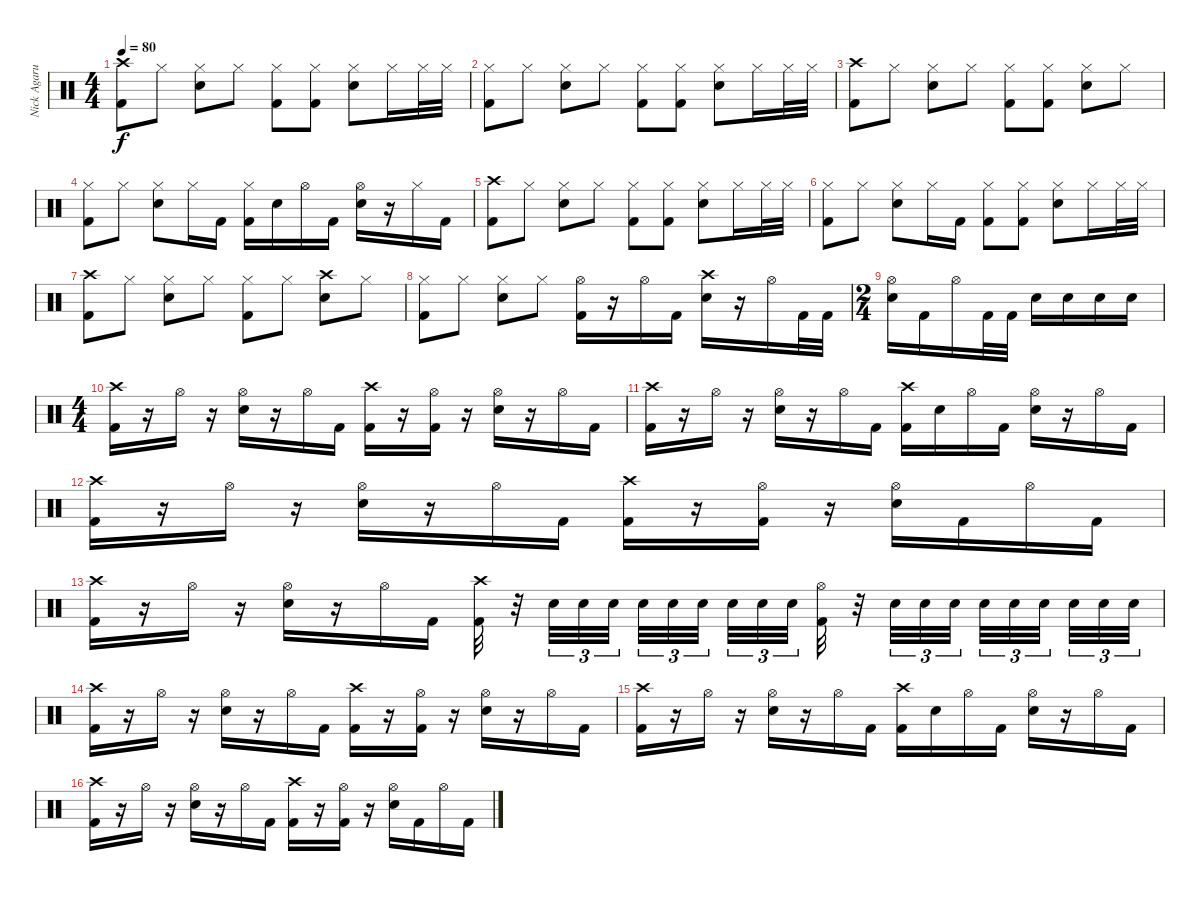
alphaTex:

\track ("Nick Agarua" "Nick Agaru") {instrument percussion}
\staff {score}
\articulation defaults
\ts (4 4)
\tempo 80
\clef neutral
\ks c
("Crash high (hit)" "Kick (hit) 2").8{dy f} "Hi-Hat (closed)".8 ("Hi-Hat (closed)" "Electric Snare (hit)").8 "Hi-Hat (closed)".8 ("Hi-Hat (closed)" "Kick (hit) 2").8 ("Hi-Hat (closed)" "Kick (hit) 2").8 ("Hi-Hat (closed)" "Electric Snare (hit)").8 "Hi-Hat (closed)".16 "Hi-Hat (closed)".32 "Hi-Hat (closed)".32 |
("Hi-Hat (closed)" "Kick (hit) 2").8 "Hi-Hat (closed)".8 ("Hi-Hat (closed)" "Electric Snare (hit)").8 "Hi-Hat (closed)".8 ("Hi-Hat (closed)" "Kick (hit) 2").8 ("Hi-Hat (closed)" "Kick (hit) 2").8 ("Hi-Hat (closed)" "Electric Snare (hit)").8 "Hi-Hat (closed)".16 "Hi-Hat (closed)".32 "Hi-Hat (closed)".32 |
("Crash high (hit)" "Kick (hit) 2").8 "Hi-Hat (closed)".8 ("Hi-Hat (closed)" "Electric Snare (hit)").8 "Hi-Hat (closed)".8 ("Hi-Hat (closed)" "Kick (hit) 2").8 ("Hi-Hat (closed)" "Kick (hit) 2").8 ("Hi-Hat (closed)" "Electric Snare (hit)").8 "Hi-Hat (closed)".8 |
("Hi-Hat (closed)" "Kick (hit) 2").8 "Hi-Hat (closed)".8 ("Hi-Hat (closed)" "Electric Snare (hit)").8 "Hi-Hat (closed)".16 "Kick (hit) 2".16 ("Hi-Hat (closed)" "Kick (hit) 2").16 "Electric Snare (hit)".16 "Hi-Hat (open)".16 "Kick (hit) 2".16 ("Hi-Hat (open)" "Electric Snare (hit)").16 r.16 "Hi-Hat (closed)".16 "Kick (hit) 2".16 |
("Crash high (hit)" "Kick (hit) 2").8 "Hi-Hat (closed)".8 ("Hi-Hat (closed)" "Electric Snare (hit)").8 "Hi-Hat (closed)".8 ("Hi-Hat (closed)" "Kick (hit) 2").8 ("Hi-Hat (closed)" "Kick (hit) 2").8 ("Hi-Hat (closed)" "Electric Snare (hit)").8 "Hi-Hat (closed)".16 "Hi-Hat (closed)".32 "Hi-Hat (closed)".32 |
("Hi-Hat (closed)" "Kick (hit) 2").8 "Hi-Hat (closed)".8 ("Hi-Hat (closed)" "Electric Snare (hit)").8 "Hi-Hat (closed)".16 "Kick (hit) 2".16 ("Hi-Hat (closed)" "Kick (hit) 2").8 ("Hi-Hat (closed)" "Kick (hit) 2").8 ("Hi-Hat (closed)" "Electric Snare (hit)").8 "Hi-Hat (closed)".16 "Hi-Hat (closed)".32 "Hi-Hat (closed)".32 |
("Crash high (hit)" "Kick (hit) 2").8 "Hi-Hat (closed)".8 ("Hi-Hat (closed)" "Electric Snare (hit)").8 "Hi-Hat (closed)".8 ("Hi-Hat (closed)" "Kick (hit) 2").8 "Hi-Hat (closed)".8 ("Crash high (hit)" "Electric Snare (hit)").8 "Hi-Hat (closed)".8 |
("Hi-Hat (closed)" "Kick (hit) 2").8 "Hi-Hat (closed)".8 ("Hi-Hat (closed)" "Electric Snare (hit)").8 "Hi-Hat (closed)".8 ("Hi-Hat (open)" "Kick (hit) 2").16 r.16 "Hi-Hat (open)".16 "Kick (hit) 2".16 ("Crash high (hit)" "Electric Snare (hit)").16 r.16 "Hi-Hat (open)".16 "Kick (hit) 2".32 "Kick (hit) 2".32 |
\ts (2 4)
("Hi-Hat (open)" "Electric Snare (hit)").16 "Kick (hit) 2".16 "Hi-Hat (open)".16 "Kick (hit) 2".32 "Kick (hit) 2".32 "Electric Snare (hit)".16 "Electric Snare (hit)".16 "Electric Snare (hit)".16 "Electric Snare (hit)".16 |
\ts (4 4)
("Crash high (hit)" "Kick (hit) 2").16 r.16 "Hi-Hat (open)".16 r.16 ("Hi-Hat (open)" "Electric Snare (hit)").16 r.16 "Hi-Hat (open)".16 "Kick (hit) 2".16 ("Crash high (hit)" "Kick (hit) 2").16 r.16 ("Hi-Hat (open)" "Kick (hit) 2").16 r.16 ("Hi-Hat (open)" "Electric Snare (hit)").16 r.16 "Hi-Hat (open)".16 "Kick (hit) 2".16 |
("Crash high (hit)" "Kick (hit) 2").16 r.16 "Hi-Hat (open)".16 r.16 ("Hi-Hat (open)" "Electric Snare (hit)").16 r.16 "Hi-Hat (open)".16 "Kick (hit) 2".16 ("Crash high (hit)" "Kick (hit) 2").16 "Electric Snare (hit)".16 "Hi-Hat (open)".16 "Kick (hit) 2".16 ("Hi-Hat (open)" "Electric Snare (hit)").16 r.16 "Hi-Hat (open)".16 "Kick (hit) 2".16 |
("Crash high (hit)" "Kick (hit) 2").16 r.16 "Hi-Hat (open)".16 r.16 ("Hi-Hat (open)" "Electric Snare (hit)").16 r.16 "Hi-Hat (open)".16 "Kick (hit) 2".16 ("Crash high (hit)" "Kick (hit) 2").16 r.16 ("Hi-Hat (open)" "Kick (hit) 2").16 r.16 ("Hi-Hat (open)" "Electric Snare (hit)").16 "Kick (hit) 2".16 "Hi-Hat (open)".16 "Kick (hit) 2".16 |
("Crash high (hit)" "Kick (hit) 2").16 r.16 "Hi-Hat (open)".16 r.16 ("Hi-Hat (open)" "Electric Snare (hit)").16 r.16 "Hi-Hat (open)".16 "Kick (hit) 2".16 ("Crash high (hit)" "Kick (hit) 2").32 r.32 "Electric Snare (hit)".32{tu (3 2)} "Electric Snare (hit)".32{tu (3 2)} "Electric Snare (hit)".32{tu (3 2) beam splitsecondary} "Electric Snare (hit)".32{tu (3 2)} "Electric Snare (hit)".32{tu (3 2)} "Electric Snare (hit)".32{tu (3 2) beam splitsecondary} "Electric Snare (hit)".32{tu (3 2)} "Electric Snare (hit)".32{tu (3 2)} "Electric Snare (hit)".32{tu (3 2)} ("Hi-Hat (open)" "Kick (hit) 2").32 r.32 "Electric Snare (hit)".32{tu (3 2)} "Electric Snare (hit)".32{tu (3 2)} "Electric Snare (hit)".32{tu (3 2) beam splitsecondary} "Electric Snare (hit)".32{tu (3 2)} "Electric Snare (hit)".32{tu (3 2)} "Electric Snare (hit)".32{tu (3 2) beam splitsecondary} "Electric Snare (hit)".32{tu (3 2)} "Electric Snare (hit)".32{tu (3 2)} "Electric Snare (hit)".32{tu (3 2)} |
("Crash high (hit)" "Kick (hit) 2").16 r.16 "Hi-Hat (open)".16 r.16 ("Hi-Hat (open)" "Electric Snare (hit)").16 r.16 "Hi-Hat (open)".16 "Kick (hit) 2".16 ("Crash high (hit)" "Kick (hit) 2").16 r.16 ("Hi-Hat (open)" "Kick (hit) 2").16 r.16 ("Hi-Hat (open)" "Electric Snare (hit)").16 r.16 "Hi-Hat (open)".16 "Kick (hit) 2".16 |
("Crash high (hit)" "Kick (hit) 2").16 r.16 "Hi-Hat (open)".16 r.16 ("Hi-Hat (open)" "Electric Snare (hit)").16 r.16 "Hi-Hat (open)".16 "Kick (hit) 2".16 ("Crash high (hit)" "Kick (hit) 2").16 "Electric Snare (hit)".16 "Hi-Hat (open)".16 "Kick (hit) 2".16 ("Hi-Hat (open)" "Electric Snare (hit)").16 r.16 "Hi-Hat (open)".16 "Kick (hit) 2".16 |
("Crash high (hit)" "Kick (hit) 2").16 r.16 "Hi-Hat (open)".16 r.16 ("Hi-Hat (open)" "Electric Snare (hit)").16 r.16 "Hi-Hat (open)".16 "Kick (hit) 2".16 ("Crash high (hit)" "Kick (hit) 2").16 r.16 ("Hi-Hat (open)" "Kick (hit) 2").16 r.16 ("Hi-Hat (open)" "Electric Snare (hit)").16 "Kick (hit) 2".16 "Hi-Hat (open)".16 "Kick (hit) 2".16
